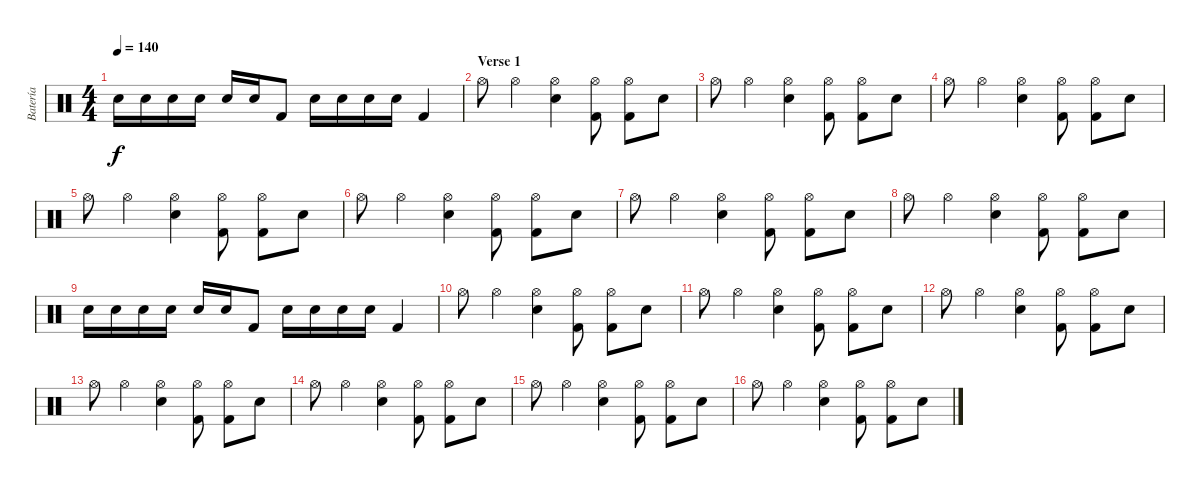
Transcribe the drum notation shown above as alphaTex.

\track ("Batería" "Batería") {instrument percussion}
\staff {score}
\articulation defaults
\ts (4 4)
\tempo 140
\clef neutral
\ks c "Snare (hit) 2".16{dy f} "Snare (hit) 2".16 "Snare (hit) 2".16 "Snare (hit) 2".16 "Snare (hit) 2".16 "Snare (hit) 2".16 "Kick (hit) 2".8 "Snare (hit) 2".16 "Snare (hit) 2".16 "Snare (hit) 2".16 "Snare (hit) 2".16 "Kick (hit) 2".4
|
\section ("" "Verse 1")
"Hi-Hat (open)".8 "Hi-Hat (open)".4 ("Hi-Hat (open)" "Snare (hit) 2").4 ("Hi-Hat (open)" "Kick (hit) 2").8 ("Hi-Hat (open)" "Kick (hit) 2").8 "Snare (hit) 2".8 |
"Hi-Hat (open)".8 "Hi-Hat (open)".4 ("Hi-Hat (open)" "Snare (hit) 2").4 ("Hi-Hat (open)" "Kick (hit) 2").8 ("Hi-Hat (open)" "Kick (hit) 2").8 "Snare (hit) 2".8 |
"Hi-Hat (open)".8 "Hi-Hat (open)".4 ("Hi-Hat (open)" "Snare (hit) 2").4 ("Hi-Hat (open)" "Kick (hit) 2").8 ("Hi-Hat (open)" "Kick (hit) 2").8 "Snare (hit) 2".8 |
"Hi-Hat (open)".8 "Hi-Hat (open)".4 ("Hi-Hat (open)" "Snare (hit) 2").4 ("Hi-Hat (open)" "Kick (hit) 2").8 ("Hi-Hat (open)" "Kick (hit) 2").8 "Snare (hit) 2".8 |
"Hi-Hat (open)".8 "Hi-Hat (open)".4 ("Hi-Hat (open)" "Snare (hit) 2").4 ("Hi-Hat (open)" "Kick (hit) 2").8 ("Hi-Hat (open)" "Kick (hit) 2").8 "Snare (hit) 2".8 |
"Hi-Hat (open)".8 "Hi-Hat (open)".4 ("Hi-Hat (open)" "Snare (hit) 2").4 ("Hi-Hat (open)" "Kick (hit) 2").8 ("Hi-Hat (open)" "Kick (hit) 2").8 "Snare (hit) 2".8 |
"Hi-Hat (open)".8 "Hi-Hat (open)".4 ("Hi-Hat (open)" "Snare (hit) 2").4 ("Hi-Hat (open)" "Kick (hit) 2").8 ("Hi-Hat (open)" "Kick (hit) 2").8 "Snare (hit) 2".8 |
"Snare (hit) 2".16 "Snare (hit) 2".16 "Snare (hit) 2".16 "Snare (hit) 2".16 "Snare (hit) 2".16 "Snare (hit) 2".16 "Kick (hit) 2".8 "Snare (hit) 2".16 "Snare (hit) 2".16 "Snare (hit) 2".16 "Snare (hit) 2".16 "Kick (hit) 2".4 |
"Hi-Hat (open)".8 "Hi-Hat (open)".4 ("Hi-Hat (open)" "Snare (hit) 2").4 ("Hi-Hat (open)" "Kick (hit) 2").8 ("Hi-Hat (open)" "Kick (hit) 2").8 "Snare (hit) 2".8 |
"Hi-Hat (open)".8 "Hi-Hat (open)".4 ("Hi-Hat (open)" "Snare (hit) 2").4 ("Hi-Hat (open)" "Kick (hit) 2").8 ("Hi-Hat (open)" "Kick (hit) 2").8 "Snare (hit) 2".8 |
"Hi-Hat (open)".8 "Hi-Hat (open)".4 ("Hi-Hat (open)" "Snare (hit) 2").4 ("Hi-Hat (open)" "Kick (hit) 2").8 ("Hi-Hat (open)" "Kick (hit) 2").8 "Snare (hit) 2".8 |
"Hi-Hat (open)".8 "Hi-Hat (open)".4 ("Hi-Hat (open)" "Snare (hit) 2").4 ("Hi-Hat (open)" "Kick (hit) 2").8 ("Hi-Hat (open)" "Kick (hit) 2").8 "Snare (hit) 2".8 |
"Hi-Hat (open)".8 "Hi-Hat (open)".4 ("Hi-Hat (open)" "Snare (hit) 2").4 ("Hi-Hat (open)" "Kick (hit) 2").8 ("Hi-Hat (open)" "Kick (hit) 2").8 "Snare (hit) 2".8 |
"Hi-Hat (open)".8 "Hi-Hat (open)".4 ("Hi-Hat (open)" "Snare (hit) 2").4 ("Hi-Hat (open)" "Kick (hit) 2").8 ("Hi-Hat (open)" "Kick (hit) 2").8 "Snare (hit) 2".8 |
"Hi-Hat (open)".8 "Hi-Hat (open)".4 ("Hi-Hat (open)" "Snare (hit) 2").4 ("Hi-Hat (open)" "Kick (hit) 2").8 ("Hi-Hat (open)" "Kick (hit) 2").8 "Snare (hit) 2".8
